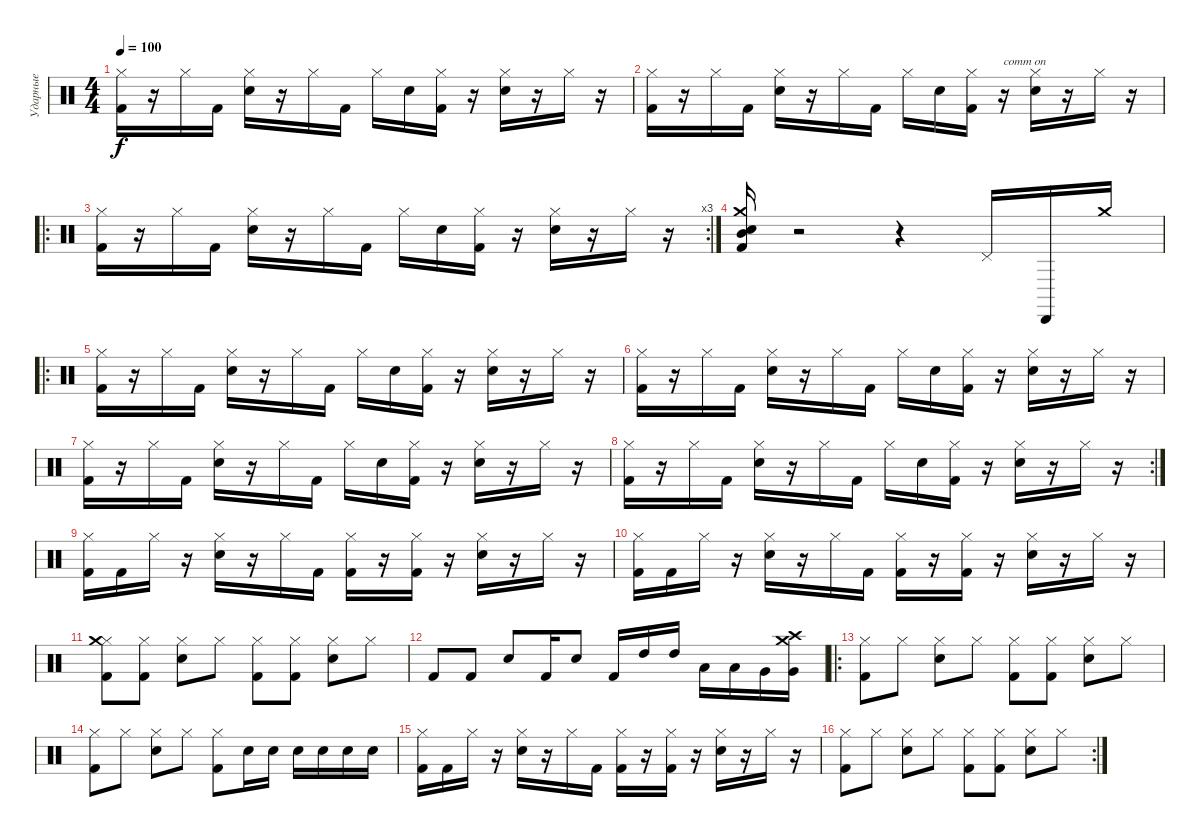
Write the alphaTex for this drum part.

\track ("Ударные" "Ударные") {instrument percussion}
\staff {score}
\articulation defaults
\ts (4 4)
\tempo 100
\clef neutral
\ks c
("Hi-Hat (closed)" "Kick (hit) 2").16{dy f} r.16 "Hi-Hat (closed)".16 "Kick (hit) 2".16 ("Hi-Hat (closed)" "Electric Snare (hit)").16 r.16 "Hi-Hat (closed)".16 "Kick (hit) 2".16 "Hi-Hat (closed)".16 "Electric Snare (hit)".16 ("Hi-Hat (closed)" "Kick (hit) 2").16 r.16 ("Hi-Hat (closed)" "Electric Snare (hit)").16 r.16 "Hi-Hat (closed)".16 r.16 |
("Hi-Hat (closed)" "Kick (hit) 2").16 r.16 "Hi-Hat (closed)".16 "Kick (hit) 2".16 ("Hi-Hat (closed)" "Electric Snare (hit)").16 r.16 "Hi-Hat (closed)".16 "Kick (hit) 2".16 "Hi-Hat (closed)".16 "Electric Snare (hit)".16 ("Hi-Hat (closed)" "Kick (hit) 2").16 r.16{txt "comm on"} ("Hi-Hat (closed)" "Electric Snare (hit)").16 r.16 "Hi-Hat (closed)".16 r.16 |
\ro
\rc 3
("Hi-Hat (closed)" "Kick (hit) 2").16 r.16 "Hi-Hat (closed)".16 "Kick (hit) 2".16 ("Hi-Hat (closed)" "Electric Snare (hit)").16 r.16 "Hi-Hat (closed)".16 "Kick (hit) 2".16 "Hi-Hat (closed)".16 "Electric Snare (hit)".16 ("Hi-Hat (closed)" "Kick (hit) 2").16 r.16 ("Hi-Hat (closed)" "Electric Snare (hit)").16 r.16 "Hi-Hat (closed)".16 r.16 |
("Crash medium (hit)" "Kick (hit) 2" "Electric Snare (hit)" "Mid Tom (hit)").16 r.2 r.4 "Pedal Hi-Hat (hit)".16 "Cabasa (hit)".16 "Crash medium (hit)".16 |
\ro
("Hi-Hat (closed)" "Kick (hit) 2").16 r.16 "Hi-Hat (closed)".16 "Kick (hit) 2".16 ("Hi-Hat (closed)" "Electric Snare (hit)").16 r.16 "Hi-Hat (closed)".16 "Kick (hit) 2".16 "Hi-Hat (closed)".16 "Electric Snare (hit)".16 ("Hi-Hat (closed)" "Kick (hit) 2").16 r.16 ("Hi-Hat (closed)" "Electric Snare (hit)").16 r.16 "Hi-Hat (closed)".16 r.16 |
("Hi-Hat (closed)" "Kick (hit) 2").16 r.16 "Hi-Hat (closed)".16 "Kick (hit) 2".16 ("Hi-Hat (closed)" "Electric Snare (hit)").16 r.16 "Hi-Hat (closed)".16 "Kick (hit) 2".16 "Hi-Hat (closed)".16 "Electric Snare (hit)".16 ("Hi-Hat (closed)" "Kick (hit) 2").16 r.16 ("Hi-Hat (closed)" "Electric Snare (hit)").16 r.16 "Hi-Hat (closed)".16 r.16 |
("Hi-Hat (closed)" "Kick (hit) 2").16 r.16 "Hi-Hat (closed)".16 "Kick (hit) 2".16 ("Hi-Hat (closed)" "Electric Snare (hit)").16 r.16 "Hi-Hat (closed)".16 "Kick (hit) 2".16 "Hi-Hat (closed)".16 "Electric Snare (hit)".16 ("Hi-Hat (closed)" "Kick (hit) 2").16 r.16 ("Hi-Hat (closed)" "Electric Snare (hit)").16 r.16 "Hi-Hat (closed)".16 r.16 |
\rc 2
("Hi-Hat (closed)" "Kick (hit) 2").16 r.16 "Hi-Hat (closed)".16 "Kick (hit) 2".16 ("Hi-Hat (closed)" "Electric Snare (hit)").16 r.16 "Hi-Hat (closed)".16 "Kick (hit) 2".16 "Hi-Hat (closed)".16 "Electric Snare (hit)".16 ("Hi-Hat (closed)" "Kick (hit) 2").16 r.16 ("Hi-Hat (closed)" "Electric Snare (hit)").16 r.16 "Hi-Hat (closed)".16 r.16 |
("Hi-Hat (closed)" "Kick (hit) 2").16 "Kick (hit) 2".16 "Hi-Hat (closed)".16 r.16 ("Hi-Hat (closed)" "Electric Snare (hit)").16 r.16 "Hi-Hat (closed)".16 "Kick (hit) 2".16 ("Hi-Hat (closed)" "Kick (hit) 2").16 r.16 ("Hi-Hat (closed)" "Kick (hit) 2").16 r.16 ("Hi-Hat (closed)" "Electric Snare (hit)").16 r.16 "Hi-Hat (closed)".16 r.16 |
("Hi-Hat (closed)" "Kick (hit) 2").16 "Kick (hit) 2".16 "Hi-Hat (closed)".16 r.16 ("Hi-Hat (closed)" "Electric Snare (hit)").16 r.16 "Hi-Hat (closed)".16 "Kick (hit) 2".16 ("Hi-Hat (closed)" "Kick (hit) 2").16 r.16 ("Hi-Hat (closed)" "Kick (hit) 2").16 r.16 ("Hi-Hat (closed)" "Electric Snare (hit)").16 r.16 "Hi-Hat (closed)".16 r.16 |
("Hi-Hat (closed)" "Kick (hit) 2" "Crash medium (hit)").8 ("Hi-Hat (closed)" "Kick (hit) 2").8 ("Hi-Hat (closed)" "Electric Snare (hit)").8 "Hi-Hat (closed)".8 ("Hi-Hat (closed)" "Kick (hit) 2").8 ("Hi-Hat (closed)" "Kick (hit) 2").8 ("Hi-Hat (closed)" "Electric Snare (hit)").8 "Hi-Hat (closed)".8 |
"Kick (hit) 2".8 "Kick (hit) 2".8 "Electric Snare (hit)".8 "Kick (hit) 2".16 "Electric Snare (hit)".8 "Kick (hit) 2".16 "High Tom (hit)".16 "High Tom (hit)".16 "Low Tom (hit)".16 "Low Tom (hit)".16 "Very Low Tom (hit)".16 ("Very Low Tom (hit)" "Crash medium (hit)" "Crash high (hit)").16 |
\ro
("Hi-Hat (closed)" "Kick (hit) 2").8 "Hi-Hat (closed)".8 ("Hi-Hat (closed)" "Electric Snare (hit)").8 "Hi-Hat (closed)".8 ("Hi-Hat (closed)" "Kick (hit) 2").8 ("Hi-Hat (closed)" "Kick (hit) 2").8 ("Hi-Hat (closed)" "Electric Snare (hit)").8 "Hi-Hat (closed)".8 |
("Hi-Hat (closed)" "Kick (hit) 2").8 "Hi-Hat (closed)".8 ("Hi-Hat (closed)" "Electric Snare (hit)").8 "Hi-Hat (closed)".8 ("Hi-Hat (closed)" "Kick (hit) 2").8 "Electric Snare (hit)".16 "Electric Snare (hit)".16 "Electric Snare (hit)".16 "Electric Snare (hit)".16 "Electric Snare (hit)".16 "Electric Snare (hit)".16 |
("Hi-Hat (closed)" "Kick (hit) 2").16 "Kick (hit) 2".16 "Hi-Hat (closed)".16 r.16 ("Hi-Hat (closed)" "Electric Snare (hit)").16 r.16 "Hi-Hat (closed)".16 "Kick (hit) 2".16 ("Hi-Hat (closed)" "Kick (hit) 2").16 r.16 ("Hi-Hat (closed)" "Kick (hit) 2").16 r.16 ("Hi-Hat (closed)" "Electric Snare (hit)").16 r.16 "Hi-Hat (closed)".16 r.16 |
\rc 2
("Hi-Hat (closed)" "Kick (hit) 2").8 "Hi-Hat (closed)".8 ("Hi-Hat (closed)" "Electric Snare (hit)").8 "Hi-Hat (closed)".8 ("Hi-Hat (closed)" "Kick (hit) 2").8 ("Hi-Hat (closed)" "Kick (hit) 2").8 ("Hi-Hat (closed)" "Electric Snare (hit)").8 "Hi-Hat (closed)".8
